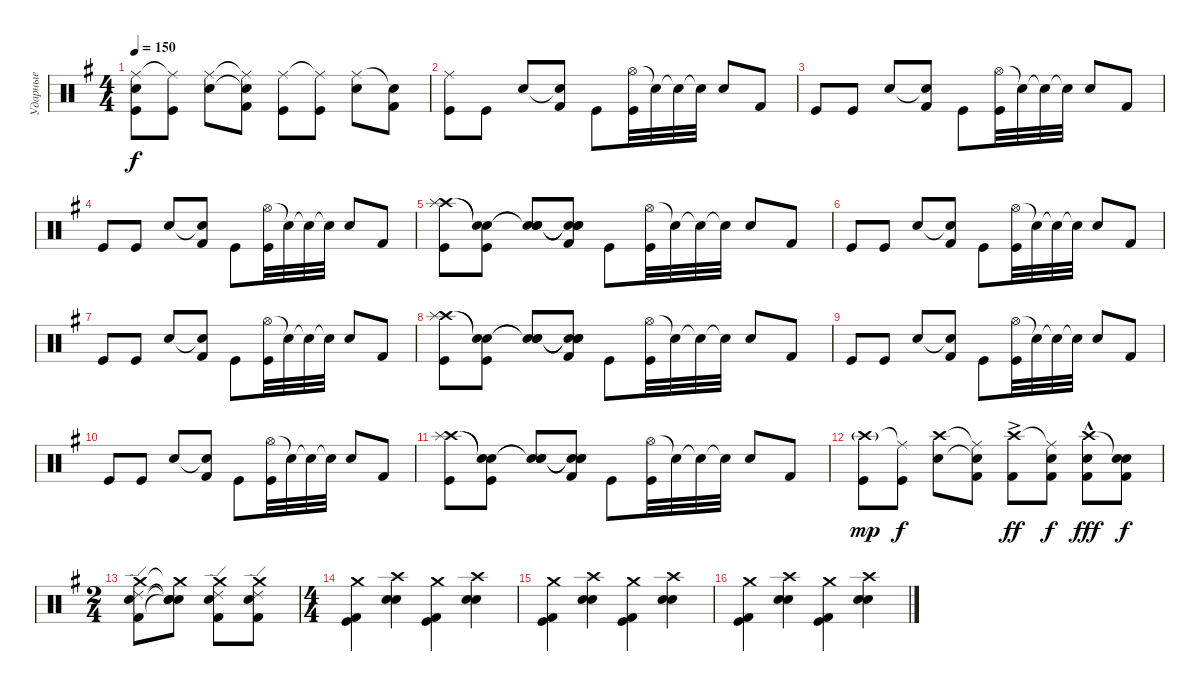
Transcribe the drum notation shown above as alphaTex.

\track ("Ударные" "Ударные") {instrument percussion}
\staff {score}
\articulation defaults
\ts (4 4)
\tempo 150
\clef neutral
\ks g
("Ride (middle)" "Snare (hit) 2" "Kick (hit)").8{dy f} ("Ride (middle)"{t} "Kick (hit)").8 ("Ride (middle)" "Snare (hit) 2").8 ("Ride (middle)"{t} "Snare (hit)"{t} "Kick (hit) 2").8 ("Ride (middle)" "Kick (hit)").8 ("Ride (middle)"{t} "Kick (hit)").8 ("Ride (middle)" "Snare (hit) 2").8 ("Snare (hit)"{t} "Kick (hit) 2").8 |
("Ride (middle)" "Kick (hit)").8 "Kick (hit)".8 "Snare (hit) 2".8 ("Snare (hit)"{t} "Kick (hit) 2").8 "Kick (hit)".8 ("Hi-Hat (open)" "Kick (hit)").32 "Snare (hit)"{t}.32 "Snare (hit)"{t}.32 "Snare (hit)"{t}.32 "Snare (hit) 2".8 "Kick (hit) 2".8 |
"Kick (hit)".8 "Kick (hit)".8 "Snare (hit) 2".8 ("Snare (hit)"{t} "Kick (hit) 2").8 "Kick (hit)".8 ("Hi-Hat (open)" "Kick (hit)").32 "Snare (hit)"{t}.32 "Snare (hit)"{t}.32 "Snare (hit)"{t}.32 "Snare (hit) 2".8 "Kick (hit) 2".8 |
"Kick (hit)".8 "Kick (hit)".8 "Snare (hit) 2".8 ("Snare (hit)"{t} "Kick (hit) 2").8 "Kick (hit)".8 ("Hi-Hat (open)" "Kick (hit)").32 "Snare (hit)"{t}.32 "Snare (hit)"{t}.32 "Snare (hit)"{t}.32 "Snare (hit) 2".8 "Kick (hit) 2".8 |
("Crash high (hit)" "Splash (hit)" "Kick (hit)").8 ("Snare (hit)"{t} "Snare (hit)"{t} "Kick (hit)").8 ("Snare (hit)"{t} "Snare (hit)"{t} "Snare (hit) 2").8 ("Snare (hit)"{t} "Snare (hit)"{t} "Snare (hit)"{t} "Kick (hit) 2").8 "Kick (hit)".8 ("Hi-Hat (open)" "Kick (hit)").32 "Snare (hit)"{t}.32 "Snare (hit)"{t}.32 "Snare (hit)"{t}.32 "Snare (hit) 2".8 "Kick (hit) 2".8 |
"Kick (hit)".8 "Kick (hit)".8 "Snare (hit) 2".8 ("Snare (hit)"{t} "Kick (hit) 2").8 "Kick (hit)".8 ("Hi-Hat (open)" "Kick (hit)").32 "Snare (hit)"{t}.32 "Snare (hit)"{t}.32 "Snare (hit)"{t}.32 "Snare (hit) 2".8 "Kick (hit) 2".8 |
"Kick (hit)".8 "Kick (hit)".8 "Snare (hit) 2".8 ("Snare (hit)"{t} "Kick (hit) 2").8 "Kick (hit)".8 ("Hi-Hat (open)" "Kick (hit)").32 "Snare (hit)"{t}.32 "Snare (hit)"{t}.32 "Snare (hit)"{t}.32 "Snare (hit) 2".8 "Kick (hit) 2".8 |
("Crash high (hit)" "Splash (hit)" "Kick (hit)").8 ("Snare (hit)"{t} "Snare (hit)"{t} "Kick (hit)").8 ("Snare (hit)"{t} "Snare (hit)"{t} "Snare (hit) 2").8 ("Snare (hit)"{t} "Snare (hit)"{t} "Snare (hit)"{t} "Kick (hit) 2").8 "Kick (hit)".8 ("Hi-Hat (open)" "Kick (hit)").32 "Snare (hit)"{t}.32 "Snare (hit)"{t}.32 "Snare (hit)"{t}.32 "Snare (hit) 2".8 "Kick (hit) 2".8 |
"Kick (hit)".8 "Kick (hit)".8 "Snare (hit) 2".8 ("Snare (hit)"{t} "Kick (hit) 2").8 "Kick (hit)".8 ("Hi-Hat (open)" "Kick (hit)").32 "Snare (hit)"{t}.32 "Snare (hit)"{t}.32 "Snare (hit)"{t}.32 "Snare (hit) 2".8 "Kick (hit) 2".8 |
"Kick (hit)".8 "Kick (hit)".8 "Snare (hit) 2".8 ("Snare (hit)"{t} "Kick (hit) 2").8 "Kick (hit)".8 ("Hi-Hat (open)" "Kick (hit)").32 "Snare (hit)"{t}.32 "Snare (hit)"{t}.32 "Snare (hit)"{t}.32 "Snare (hit) 2".8 "Kick (hit) 2".8 |
("Crash high (hit)" "Splash (hit)" "Kick (hit)").8 ("Snare (hit)"{t} "Snare (hit)"{t} "Kick (hit)").8 ("Snare (hit)"{t} "Snare (hit)"{t} "Snare (hit) 2").8 ("Snare (hit)"{t} "Snare (hit)"{t} "Snare (hit)"{t} "Kick (hit) 2").8 "Kick (hit)".8 ("Hi-Hat (open)" "Kick (hit)").32 "Snare (hit)"{t}.32 "Snare (hit)"{t}.32 "Snare (hit)"{t}.32 "Snare (hit) 2".8 "Kick (hit) 2".8 |
("Crash high (hit)"{g} "Kick (hit)").8{dy mp} ("Ride (middle)"{t} "Kick (hit)").8{dy f} ("Crash high (hit)" "Snare (hit) 2").8 ("Ride (middle)"{t} "Snare (hit)"{t} "Kick (hit) 2").8 ("Crash high (hit)"{ac} "Kick (hit) 2").8{dy ff} ("Ride (middle)"{t} "Snare (hit) 2" "Kick (hit) 2").8{dy f} ("Crash high (hit)"{hac} "Snare (hit) 2" "Kick (hit) 2").8{dy fff} ("Snare (hit)"{t} "Snare (hit) 2" "Kick (hit) 2").8{dy f} |
\ts (2 4)
("Crash medium (hit)" "Ride (edge) 2" "Snare (hit) 2" "Kick (hit) 2").8 ("Crash medium (hit)"{t} "Snare (hit)"{t} "Snare (hit)"{t} "Snare (hit)"{t}).8 ("Crash medium (hit)" "Ride (edge) 2" "Snare (hit) 2" "Kick (hit) 2").8 ("Crash medium (hit)" "Ride (edge) 2" "Snare (hit) 2" "Kick (hit) 2").8 |
\ts (4 4)
("Crash medium (hit)" "Kick (hit) 2" "Kick (hit)").4 ("Crash high (hit)" "Snare (hit) 2" "Snare (hit) 2").4 ("Crash medium (hit)" "Kick (hit) 2" "Kick (hit)").4 ("Crash high (hit)" "Snare (hit) 2" "Snare (hit) 2").4 |
("Crash medium (hit)" "Kick (hit) 2" "Kick (hit)").4 ("Crash high (hit)" "Snare (hit) 2" "Snare (hit) 2").4 ("Crash medium (hit)" "Kick (hit) 2" "Kick (hit)").4 ("Crash high (hit)" "Snare (hit) 2" "Snare (hit) 2").4 |
("Crash medium (hit)" "Kick (hit) 2" "Kick (hit)").4 ("Crash high (hit)" "Snare (hit) 2" "Snare (hit) 2").4 ("Crash medium (hit)" "Kick (hit) 2" "Kick (hit)").4 ("Crash high (hit)" "Snare (hit) 2" "Snare (hit) 2").4
